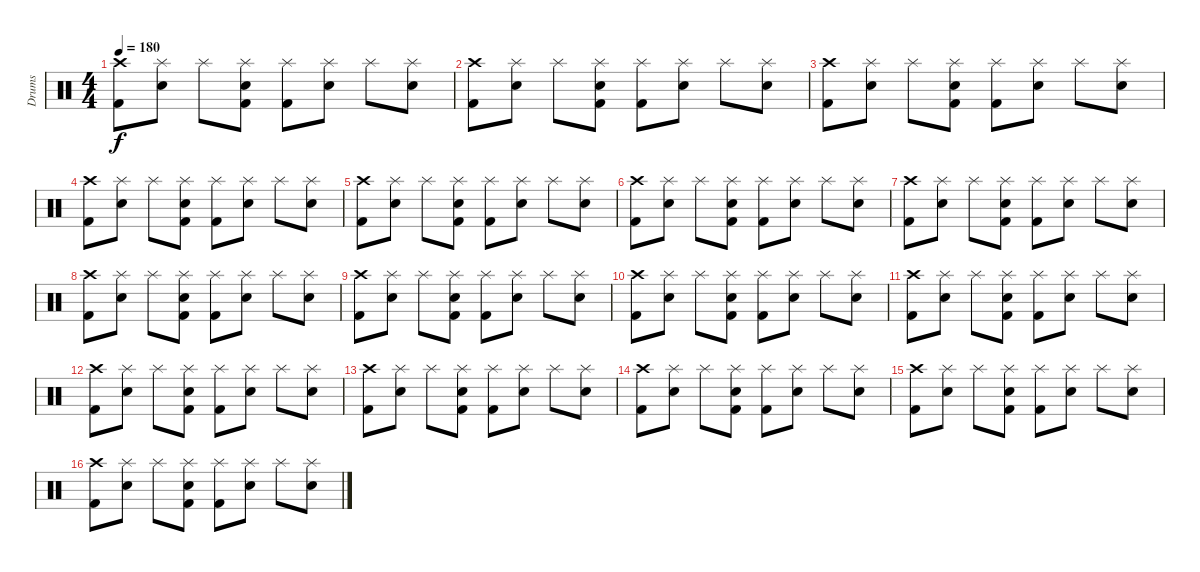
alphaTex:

\track ("Drums" "Drums") {instrument percussion}
\staff {score}
\articulation defaults
\ts (4 4)
\tempo 180
\clef neutral
\ks c
("Crash high (hit)" "Kick (hit) 2").8{dy f} ("Splash (hit)" "Snare (hit) 2").8 "Splash (hit)".8 ("Splash (hit)" "Snare (hit) 2" "Kick (hit) 2").8 ("Splash (hit)" "Kick (hit) 2").8 ("Splash (hit)" "Snare (hit) 2").8 "Splash (hit)".8 ("Splash (hit)" "Snare (hit) 2").8 |
("Crash high (hit)" "Kick (hit) 2").8 ("Splash (hit)" "Snare (hit) 2").8 "Splash (hit)".8 ("Splash (hit)" "Snare (hit) 2" "Kick (hit) 2").8 ("Splash (hit)" "Kick (hit) 2").8 ("Splash (hit)" "Snare (hit) 2").8 "Splash (hit)".8 ("Splash (hit)" "Snare (hit) 2").8 |
("Crash high (hit)" "Kick (hit) 2").8 ("Splash (hit)" "Snare (hit) 2").8 "Splash (hit)".8 ("Splash (hit)" "Snare (hit) 2" "Kick (hit) 2").8 ("Splash (hit)" "Kick (hit) 2").8 ("Splash (hit)" "Snare (hit) 2").8 "Splash (hit)".8 ("Splash (hit)" "Snare (hit) 2").8 |
("Crash high (hit)" "Kick (hit) 2").8 ("Splash (hit)" "Snare (hit) 2").8 "Splash (hit)".8 ("Splash (hit)" "Snare (hit) 2" "Kick (hit) 2").8 ("Splash (hit)" "Kick (hit) 2").8 ("Splash (hit)" "Snare (hit) 2").8 "Splash (hit)".8 ("Splash (hit)" "Snare (hit) 2").8 |
("Crash high (hit)" "Kick (hit) 2").8 ("Splash (hit)" "Snare (hit) 2").8 "Splash (hit)".8 ("Splash (hit)" "Snare (hit) 2" "Kick (hit) 2").8 ("Splash (hit)" "Kick (hit) 2").8 ("Splash (hit)" "Snare (hit) 2").8 "Splash (hit)".8 ("Splash (hit)" "Snare (hit) 2").8 |
("Crash high (hit)" "Kick (hit) 2").8 ("Splash (hit)" "Snare (hit) 2").8 "Splash (hit)".8 ("Splash (hit)" "Snare (hit) 2" "Kick (hit) 2").8 ("Splash (hit)" "Kick (hit) 2").8 ("Splash (hit)" "Snare (hit) 2").8 "Splash (hit)".8 ("Splash (hit)" "Snare (hit) 2").8 |
("Crash high (hit)" "Kick (hit) 2").8 ("Splash (hit)" "Snare (hit) 2").8 "Splash (hit)".8 ("Splash (hit)" "Snare (hit) 2" "Kick (hit) 2").8 ("Splash (hit)" "Kick (hit) 2").8 ("Splash (hit)" "Snare (hit) 2").8 "Splash (hit)".8 ("Splash (hit)" "Snare (hit) 2").8 |
("Crash high (hit)" "Kick (hit) 2").8 ("Splash (hit)" "Snare (hit) 2").8 "Splash (hit)".8 ("Splash (hit)" "Snare (hit) 2" "Kick (hit) 2").8 ("Splash (hit)" "Kick (hit) 2").8 ("Splash (hit)" "Snare (hit) 2").8 "Splash (hit)".8 ("Splash (hit)" "Snare (hit) 2").8 |
("Crash high (hit)" "Kick (hit) 2").8 ("Splash (hit)" "Snare (hit) 2").8 "Splash (hit)".8 ("Splash (hit)" "Snare (hit) 2" "Kick (hit) 2").8 ("Splash (hit)" "Kick (hit) 2").8 ("Splash (hit)" "Snare (hit) 2").8 "Splash (hit)".8 ("Splash (hit)" "Snare (hit) 2").8 |
("Crash high (hit)" "Kick (hit) 2").8 ("Splash (hit)" "Snare (hit) 2").8 "Splash (hit)".8 ("Splash (hit)" "Snare (hit) 2" "Kick (hit) 2").8 ("Splash (hit)" "Kick (hit) 2").8 ("Splash (hit)" "Snare (hit) 2").8 "Splash (hit)".8 ("Splash (hit)" "Snare (hit) 2").8 |
("Crash high (hit)" "Kick (hit) 2").8 ("Splash (hit)" "Snare (hit) 2").8 "Splash (hit)".8 ("Splash (hit)" "Snare (hit) 2" "Kick (hit) 2").8 ("Splash (hit)" "Kick (hit) 2").8 ("Splash (hit)" "Snare (hit) 2").8 "Splash (hit)".8 ("Splash (hit)" "Snare (hit) 2").8 |
("Crash high (hit)" "Kick (hit) 2").8 ("Splash (hit)" "Snare (hit) 2").8 "Splash (hit)".8 ("Splash (hit)" "Snare (hit) 2" "Kick (hit) 2").8 ("Splash (hit)" "Kick (hit) 2").8 ("Splash (hit)" "Snare (hit) 2").8 "Splash (hit)".8 ("Splash (hit)" "Snare (hit) 2").8 |
("Crash high (hit)" "Kick (hit) 2").8 ("Splash (hit)" "Snare (hit) 2").8 "Splash (hit)".8 ("Splash (hit)" "Snare (hit) 2" "Kick (hit) 2").8 ("Splash (hit)" "Kick (hit) 2").8 ("Splash (hit)" "Snare (hit) 2").8 "Splash (hit)".8 ("Splash (hit)" "Snare (hit) 2").8 |
("Crash high (hit)" "Kick (hit) 2").8 ("Splash (hit)" "Snare (hit) 2").8 "Splash (hit)".8 ("Splash (hit)" "Snare (hit) 2" "Kick (hit) 2").8 ("Splash (hit)" "Kick (hit) 2").8 ("Splash (hit)" "Snare (hit) 2").8 "Splash (hit)".8 ("Splash (hit)" "Snare (hit) 2").8 |
("Crash high (hit)" "Kick (hit) 2").8 ("Splash (hit)" "Snare (hit) 2").8 "Splash (hit)".8 ("Splash (hit)" "Snare (hit) 2" "Kick (hit) 2").8 ("Splash (hit)" "Kick (hit) 2").8 ("Splash (hit)" "Snare (hit) 2").8 "Splash (hit)".8 ("Splash (hit)" "Snare (hit) 2").8 |
("Crash high (hit)" "Kick (hit) 2").8 ("Splash (hit)" "Snare (hit) 2").8 "Splash (hit)".8 ("Splash (hit)" "Snare (hit) 2" "Kick (hit) 2").8 ("Splash (hit)" "Kick (hit) 2").8 ("Splash (hit)" "Snare (hit) 2").8 "Splash (hit)".8 ("Splash (hit)" "Snare (hit) 2").8
